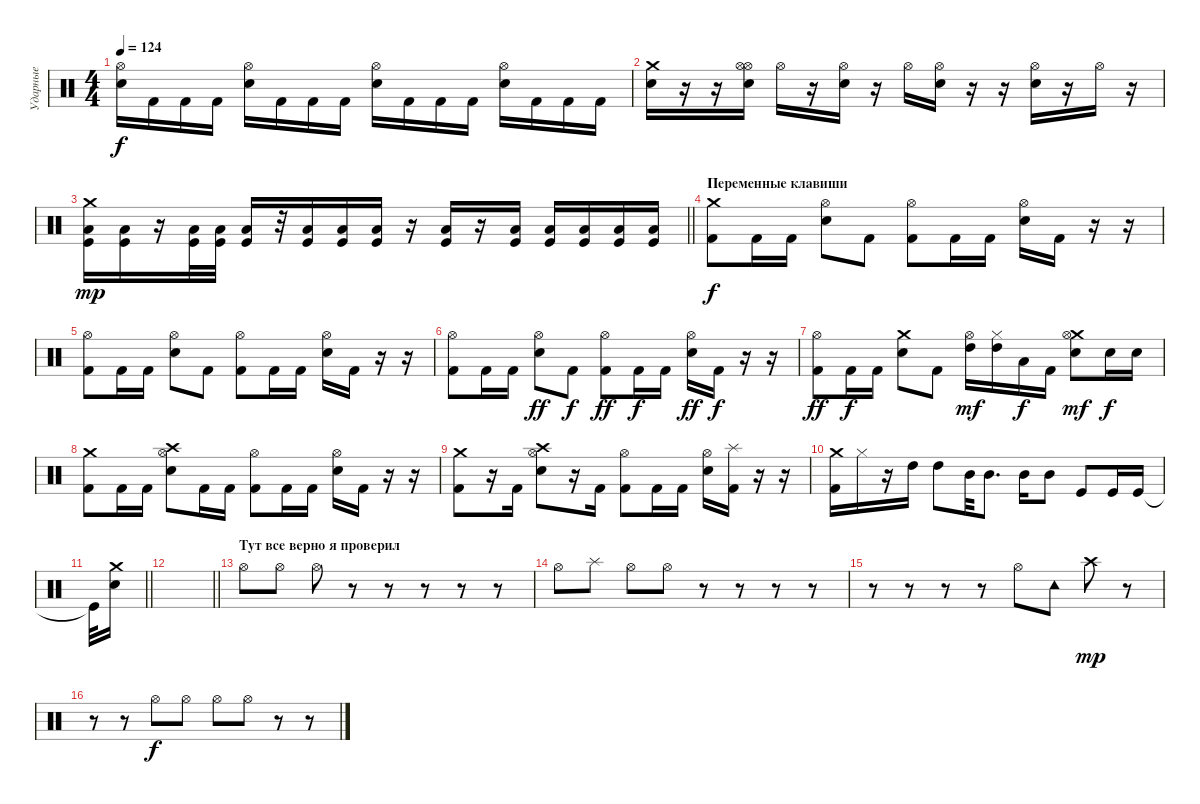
\track ("Ударные" "Ударные") {instrument percussion bank 127}
\staff
\articulation defaults
\ts (4 4)
\tempo 124
\clef neutral
\ks c
("Hi-Hat (open)" "Snare (hit) 2").16{dy f} "Kick (hit) 2".16 "Kick (hit) 2".16 "Kick (hit) 2".16 ("Hi-Hat (open)" "Snare (hit) 2").16 "Kick (hit) 2".16 "Kick (hit) 2".16 "Kick (hit) 2".16 ("Hi-Hat (open)" "Snare (hit) 2").16 "Kick (hit) 2".16 "Kick (hit) 2".16 "Kick (hit) 2".16 ("Hi-Hat (open)" "Snare (hit) 2").16 "Kick (hit) 2".16 "Kick (hit) 2".16 "Kick (hit) 2".16 |
("Snare (hit) 2" "Crash medium (hit)").16 r.16 r.16 ("Hi-Hat (open)" "Snare (hit) 2" "Hi-Hat (open)").16 "Hi-Hat (open)".16 r.16 ("Hi-Hat (open)" "Snare (hit) 2").16 r.16 "Hi-Hat (open)".16 ("Snare (hit) 2" "Hi-Hat (open)").16 r.16 r.16 ("Snare (hit) 2" "Hi-Hat (open)").16 r.16 "Hi-Hat (open)".16 r.16 |
\barLineRight lightlight
("Crash medium (hit)" "Low Tom (hit)" "Kick (hit)").16{dy mp} ("Low Tom (hit)" "Kick (hit)").16 r.16 ("Low Tom (hit)" "Kick (hit)").32 ("Low Tom (hit)" "Kick (hit)").32 ("Low Tom (hit)" "Kick (hit)").16 r.32 ("Kick (hit)" "Low Tom (hit)").16 ("Kick (hit)" "Low Tom (hit)").16 ("Kick (hit)" "Low Tom (hit)").16 r.16 ("Low Tom (hit)" "Kick (hit)").16 r.16 ("Low Tom (hit)" "Kick (hit)").16 ("Low Tom (hit)" "Kick (hit)").16 ("Low Tom (hit)" "Kick (hit)").16 ("Low Tom (hit)" "Kick (hit)").16 ("Low Tom (hit)" "Kick (hit)").16 |
\section ("" "Переменные клавиши")
("Crash medium (hit)" "Kick (hit) 2").8{dy f} "Kick (hit) 2".16 "Kick (hit) 2".16 ("Hi-Hat (open)" "Snare (hit) 2").8 "Kick (hit) 2".8 ("Hi-Hat (open)" "Kick (hit) 2").8 "Kick (hit) 2".16 "Kick (hit) 2".16 ("Hi-Hat (open)" "Snare (hit) 2").16 "Kick (hit) 2".16 r.16 r.16 |
("Hi-Hat (open)" "Kick (hit) 2").8 "Kick (hit) 2".16 "Kick (hit) 2".16 ("Hi-Hat (open)" "Snare (hit) 2").8 "Kick (hit) 2".8 ("Hi-Hat (open)" "Kick (hit) 2").8 "Kick (hit) 2".16 "Kick (hit) 2".16 ("Hi-Hat (open)" "Snare (hit) 2").16 "Kick (hit) 2".16 r.16 r.16 |
("Hi-Hat (open)" "Kick (hit) 2").8 "Kick (hit) 2".16 "Kick (hit) 2".16 ("Hi-Hat (open)" "Snare (hit) 2").8{dy ff} "Kick (hit) 2".8{dy f} ("Hi-Hat (open)" "Kick (hit) 2").8{dy ff} "Kick (hit) 2".16{dy f} "Kick (hit) 2".16 ("Hi-Hat (open)" "Snare (hit) 2").16{dy ff} "Kick (hit) 2".16{dy f} r.16 r.16 |
("Hi-Hat (open)" "Kick (hit) 2").8{dy ff} "Kick (hit) 2".16{dy f} "Kick (hit) 2".16 ("Crash medium (hit)" "Snare (hit) 2").8 "Kick (hit) 2".8 ("High Tom (hit)" "Hi-Hat (open)").16{dy mf} ("High Tom (hit)" "Hi-Hat (closed)").16 "Low Tom (hit)".16{dy f} "Kick (hit) 2".16 ("Snare (hit) 2" "Crash medium (hit)" "Hi-Hat (open)").8{dy mf} "Snare (hit) 2".16{dy f} "Snare (hit) 2".16 |
("Crash medium (hit)" "Kick (hit) 2").8 "Kick (hit) 2".16 "Kick (hit) 2".16 ("Hi-Hat (open)" "Crash high (hit)" "Snare (hit) 2").8 "Kick (hit) 2".16 "Kick (hit) 2".16 ("Hi-Hat (open)" "Kick (hit) 2").8 "Kick (hit) 2".16 "Kick (hit) 2".16 ("Hi-Hat (open)" "Snare (hit) 2").16 "Kick (hit) 2".16 r.16 r.16 |
("Crash medium (hit)" "Kick (hit) 2").8 r.16 "Kick (hit) 2".16 ("Hi-Hat (open)" "Crash high (hit)" "Snare (hit) 2").8 r.16 "Kick (hit) 2".16 ("Hi-Hat (open)" "Kick (hit) 2").8 "Kick (hit) 2".16 "Kick (hit) 2".16 ("Hi-Hat (open)" "Snare (hit) 2").16 ("Splash (hit)" "Kick (hit) 2").16 r.16 r.16 |
("Crash medium (hit)" "Kick (hit) 2").16 "Hi-Hat (closed)".16 r.16 "High Tom (hit)".16 "High Tom (hit)".8 "Mid Tom (hit)".32 "Mid Tom (hit)".8{d} "Mid Tom (hit)".16 "Mid Tom (hit)".8 "Kick (hit)".8 "Kick (hit)".16 "Kick (hit)".16 |
\barLineRight lightlight "Kick (hit)"{t}.32
("Snare (hit) 2" "Crash medium (hit)").16 |
\barLineRight lightlight
|
\section ("" "Тут все верно я проверил")
"Hi-Hat (open)".8 "Hi-Hat (open)".8 "Hi-Hat (open)".8 r.8 r.8 r.8 r.8 r.8 |
"Hi-Hat (open)".8 "Splash (hit)".8 "Hi-Hat (open)".8 "Hi-Hat (open)".8 r.8 r.8 r.8 r.8 |
r.8 r.8 r.8 r.8 "Hi-Hat (open)".8 "Tambourine (hit)".8 "Crash high (hit)".8{dy mp} r.8 |
r.8 r.8 "Hi-Hat (open)".8{dy f} "Hi-Hat (open)".8 "Hi-Hat (open)".8 "Hi-Hat (open)".8 r.8 r.8
